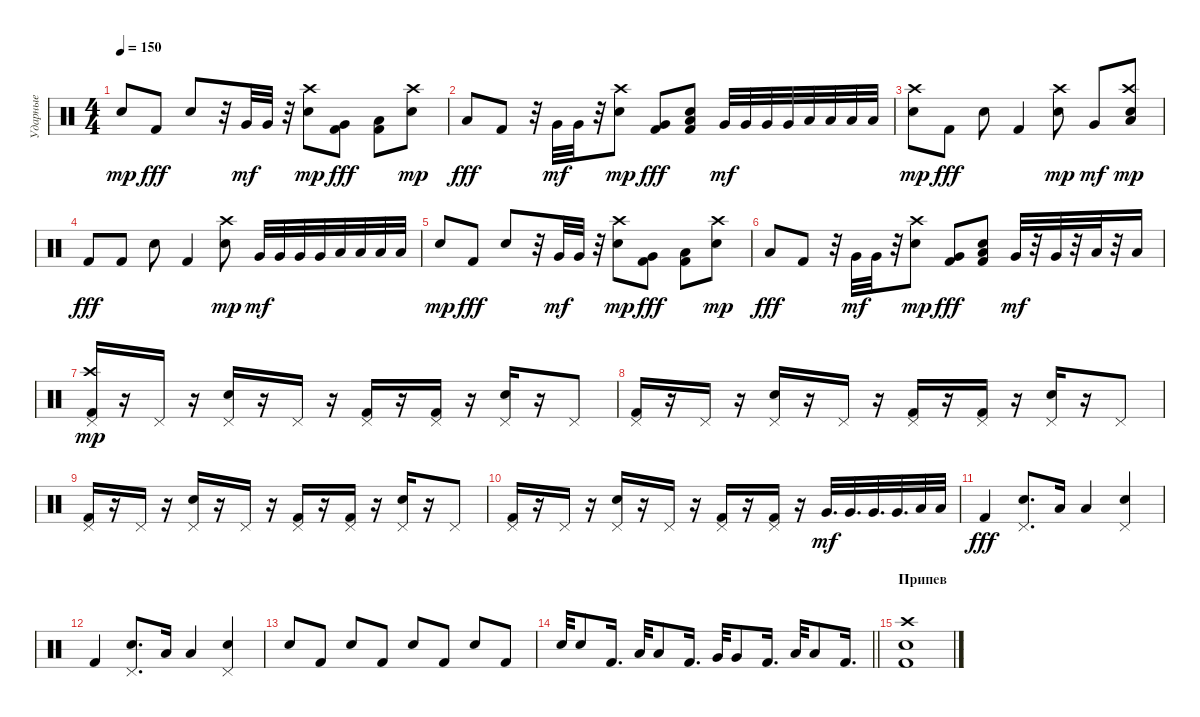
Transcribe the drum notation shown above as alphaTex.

\track ("Ударные" "Ударные") {instrument percussion}
\staff {score}
\articulation defaults
\ts (4 4)
\tempo 150
\clef neutral
\ks c "Snare (hit) 2".8{dy mp} "Kick (hit) 2".8{dy fff} "Snare (hit) 2".8
r.32 "Very Low Tom (hit)".32{dy mf} "Very Low Tom (hit)".32 r.32 ("Snare (hit) 2" "Crash high (hit)").8{dy mp} ("Kick (hit) 2" "Very Low Tom (hit)").8{dy fff} ("Kick (hit) 2" "Low Floor Tom (hit)").8 ("Electric Snare (hit)" "Crash high (hit)").8{dy mp} |
"Low Tom (hit)".8{dy fff} "Kick (hit) 2".8 r.32 "Very Low Tom (hit)".32{dy mf} "Very Low Tom (hit)".32 r.32 ("Snare (hit) 2" "Crash high (hit)").8{dy mp} ("Kick (hit) 2" "Very Low Tom (hit)").8{dy fff} ("Kick (hit) 2" "Low Floor Tom (hit)" "Snare (hit) 2").8 "Very Low Tom (hit)".32{dy mf} "Very Low Tom (hit)".32 "Very Low Tom (hit)".32 "Very Low Tom (hit)".32 "Low Floor Tom (hit)".32 "Low Floor Tom (hit)".32 "Low Floor Tom (hit)".32 "Low Floor Tom (hit)".32 |
("Snare (hit) 2" "Crash high (hit)").8{dy mp} "Kick (hit) 2".8{dy fff} "Snare (hit) 2".8 "Kick (hit) 2".4 ("Snare (hit) 2" "Crash high (hit)").8{dy mp} "Very Low Tom (hit)".8{dy mf} ("Snare (hit) 2" "Low Floor Tom (hit)" "Crash high (hit)").8{dy mp} |
"Kick (hit) 2".8{dy fff} "Kick (hit) 2".8 "Snare (hit) 2".8 "Kick (hit) 2".4 ("Snare (hit) 2" "Crash high (hit)").8{dy mp} "Very Low Tom (hit)".32{dy mf} "Very Low Tom (hit)".32 "Very Low Tom (hit)".32 "Very Low Tom (hit)".32 "Low Floor Tom (hit)".32 "Low Floor Tom (hit)".32 "Low Floor Tom (hit)".32 "Low Floor Tom (hit)".32 |
"Snare (hit) 2".8{dy mp} "Kick (hit) 2".8{dy fff} "Snare (hit) 2".8 r.32 "Very Low Tom (hit)".32{dy mf} "Very Low Tom (hit)".32 r.32 ("Snare (hit) 2" "Crash high (hit)").8{dy mp} ("Kick (hit) 2" "Very Low Tom (hit)").8{dy fff} ("Kick (hit) 2" "Low Floor Tom (hit)").8 ("Electric Snare (hit)" "Crash high (hit)").8{dy mp} |
"Low Tom (hit)".8{dy fff} "Kick (hit) 2".8 r.32 "Very Low Tom (hit)".32{dy mf} "Very Low Tom (hit)".32 r.32 ("Snare (hit) 2" "Crash high (hit)").8{dy mp} ("Kick (hit) 2" "Very Low Tom (hit)").8{dy fff} ("Kick (hit) 2" "Low Floor Tom (hit)" "Snare (hit) 2").8 "Very Low Tom (hit)".32{dy mf} r.32 "Very Low Tom (hit)".32 r.32 "Low Floor Tom (hit)".32 r.32 "Low Floor Tom (hit)".16 |
("Crash high (hit)" "Kick (hit) 2" "Pedal Hi-Hat (hit)").16{dy mp} r.16 "Pedal Hi-Hat (hit)".16 r.16 ("Electric Snare (hit)" "Pedal Hi-Hat (hit)").16 r.16 "Pedal Hi-Hat (hit)".16 r.16 ("Kick (hit) 2" "Pedal Hi-Hat (hit)").16 r.16 ("Kick (hit) 2" "Pedal Hi-Hat (hit)").16 r.16 ("Electric Snare (hit)" "Pedal Hi-Hat (hit)").16 r.16 "Pedal Hi-Hat (hit)".8 |
("Kick (hit) 2" "Pedal Hi-Hat (hit)").16 r.16 "Pedal Hi-Hat (hit)".16 r.16 ("Electric Snare (hit)" "Pedal Hi-Hat (hit)").16 r.16 "Pedal Hi-Hat (hit)".16 r.16 ("Kick (hit) 2" "Pedal Hi-Hat (hit)").16 r.16 ("Kick (hit) 2" "Pedal Hi-Hat (hit)").16 r.16 ("Electric Snare (hit)" "Pedal Hi-Hat (hit)").16 r.16 "Pedal Hi-Hat (hit)".8 |
("Kick (hit) 2" "Pedal Hi-Hat (hit)").16 r.16 "Pedal Hi-Hat (hit)".16 r.16 ("Electric Snare (hit)" "Pedal Hi-Hat (hit)").16 r.16 "Pedal Hi-Hat (hit)".16 r.16 ("Kick (hit) 2" "Pedal Hi-Hat (hit)").16 r.16 ("Kick (hit) 2" "Pedal Hi-Hat (hit)").16 r.16 ("Electric Snare (hit)" "Pedal Hi-Hat (hit)").16 r.16 "Pedal Hi-Hat (hit)".8 |
("Kick (hit) 2" "Pedal Hi-Hat (hit)").16 r.16 "Pedal Hi-Hat (hit)".16 r.16 ("Electric Snare (hit)" "Pedal Hi-Hat (hit)").16 r.16 "Pedal Hi-Hat (hit)".16 r.16 ("Kick (hit) 2" "Pedal Hi-Hat (hit)").16 r.16 ("Kick (hit) 2" "Pedal Hi-Hat (hit)").16 r.16 "Very Low Tom (hit)".32{d dy mf} "Very Low Tom (hit)".32{d} "Very Low Tom (hit)".32{d} "Very Low Tom (hit)".32{d} "Low Floor Tom (hit)".32 "Low Floor Tom (hit)".32 |
"Kick (hit) 2".4{dy fff} ("Electric Snare (hit)" "Pedal Hi-Hat (hit)").8{d} "Low Floor Tom (hit)".16 "Low Floor Tom (hit)".4 ("Electric Snare (hit)" "Pedal Hi-Hat (hit)").4 |
"Kick (hit) 2".4 ("Electric Snare (hit)" "Pedal Hi-Hat (hit)").8{d} "Low Floor Tom (hit)".16 "Low Floor Tom (hit)".4 ("Electric Snare (hit)" "Pedal Hi-Hat (hit)").4 |
"Electric Snare (hit)".8 "Kick (hit) 2".8 "Electric Snare (hit)".8 "Kick (hit) 2".8 "Electric Snare (hit)".8 "Kick (hit) 2".8 "Electric Snare (hit)".8 "Kick (hit) 2".8 |
\barLineRight lightlight "Electric Snare (hit)".32 "Electric Snare (hit)".8 "Kick (hit) 2".16{d} "Low Tom (hit)".32 "Low Tom (hit)".8 "Kick (hit) 2".16{d} "Very Low Tom (hit)".32 "Very Low Tom (hit)".8 "Kick (hit) 2".16{d} "Low Floor Tom (hit)".32 "Low Floor Tom (hit)".8 "Kick (hit) 2".16{d}
|
\section ("" "Припев")
("Crash high (hit)" "Kick (hit) 2" "Electric Snare (hit)").1
